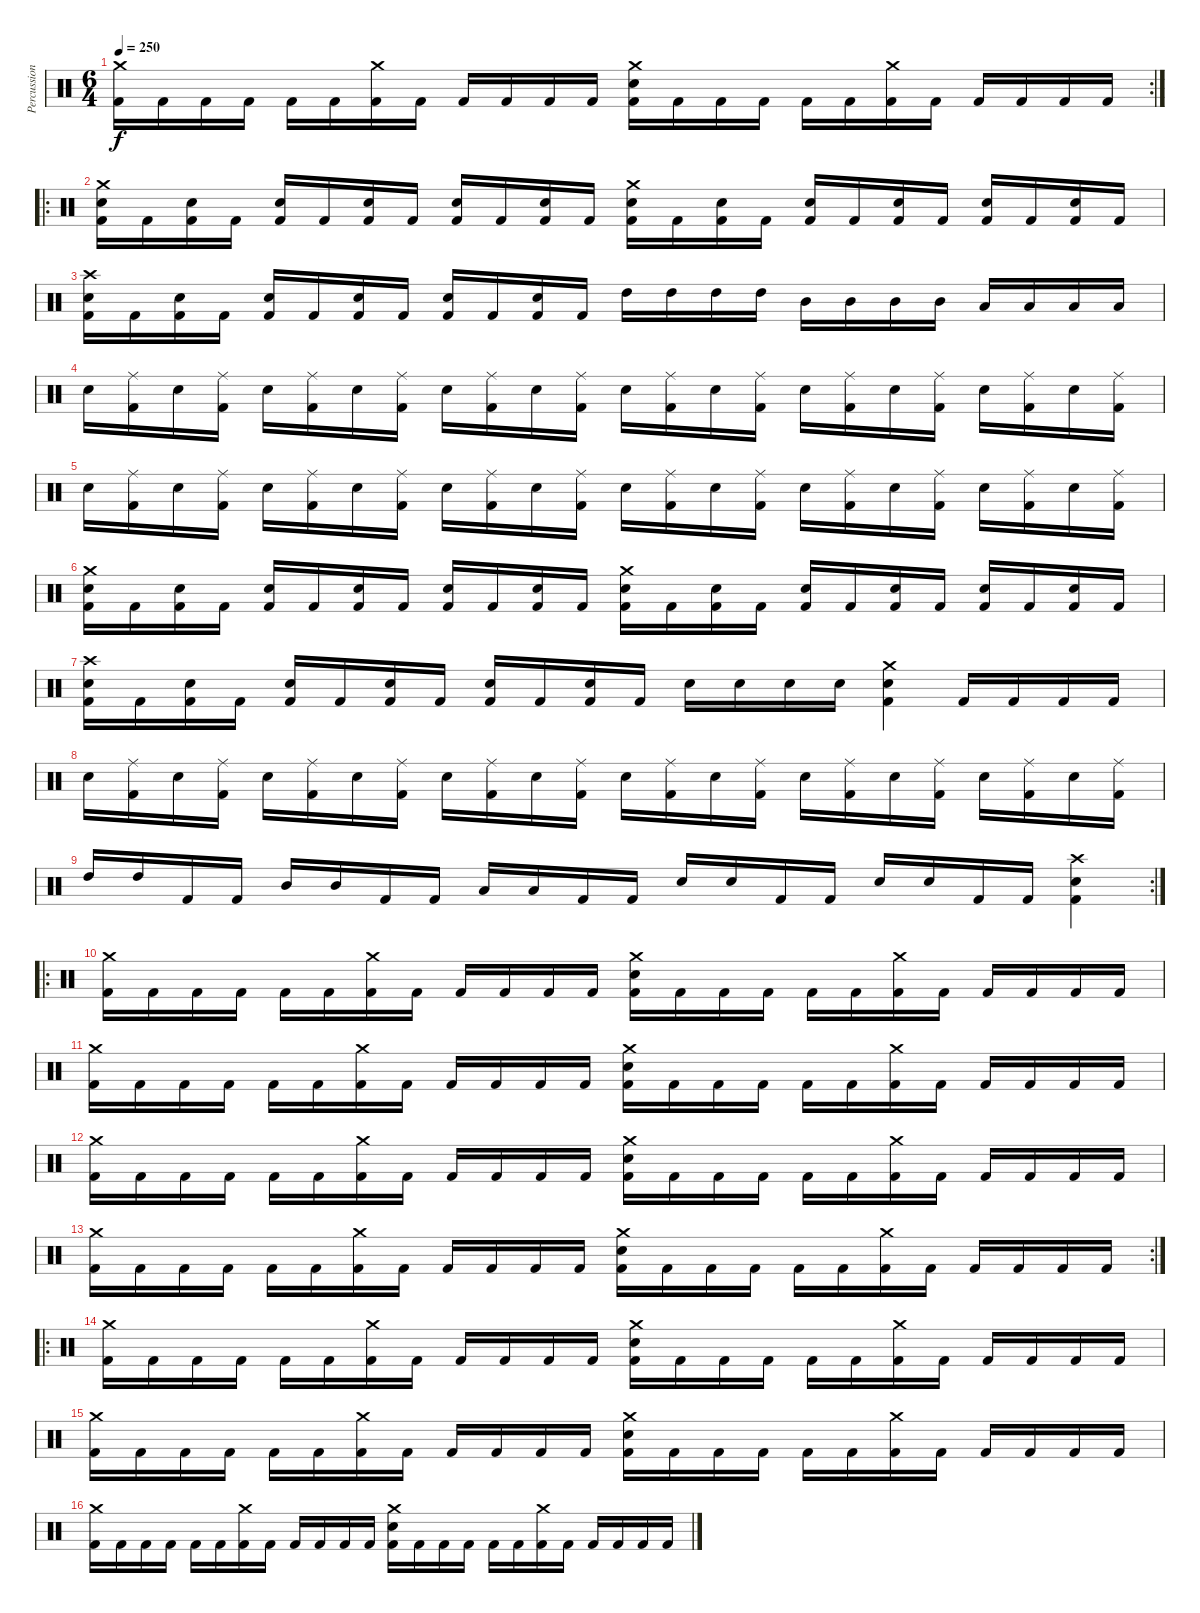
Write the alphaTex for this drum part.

\track ("Percussion" "Percussion") {instrument percussion}
\staff {score}
\articulation defaults
\rc 2
\ts (6 4)
\tempo 250
\clef neutral
\ks c
("Crash medium (hit)" "Kick (hit) 2").16{dy f} "Kick (hit) 2".16 "Kick (hit) 2".16 "Kick (hit) 2".16 "Kick (hit) 2".16 "Kick (hit) 2".16 ("Crash medium (hit)" "Kick (hit) 2").16 "Kick (hit) 2".16 "Kick (hit) 2".16 "Kick (hit) 2".16 "Kick (hit) 2".16 "Kick (hit) 2".16 ("Crash medium (hit)" "Electric Snare (hit)" "Kick (hit) 2").16 "Kick (hit) 2".16 "Kick (hit) 2".16 "Kick (hit) 2".16 "Kick (hit) 2".16 "Kick (hit) 2".16 ("Crash medium (hit)" "Kick (hit) 2").16 "Kick (hit) 2".16 "Kick (hit) 2".16 "Kick (hit) 2".16 "Kick (hit) 2".16 "Kick (hit) 2".16 |
\ro
("Crash medium (hit)" "Electric Snare (hit)" "Kick (hit) 2").16 "Kick (hit) 2".16 ("Electric Snare (hit)" "Kick (hit) 2").16 "Kick (hit) 2".16 ("Electric Snare (hit)" "Kick (hit) 2").16 "Kick (hit) 2".16 ("Electric Snare (hit)" "Kick (hit) 2").16 "Kick (hit) 2".16 ("Electric Snare (hit)" "Kick (hit) 2").16 "Kick (hit) 2".16 ("Electric Snare (hit)" "Kick (hit) 2").16 "Kick (hit) 2".16 ("Crash medium (hit)" "Electric Snare (hit)" "Kick (hit) 2").16 "Kick (hit) 2".16 ("Electric Snare (hit)" "Kick (hit) 2").16 "Kick (hit) 2".16 ("Electric Snare (hit)" "Kick (hit) 2").16 "Kick (hit) 2".16 ("Electric Snare (hit)" "Kick (hit) 2").16 "Kick (hit) 2".16 ("Electric Snare (hit)" "Kick (hit) 2").16 "Kick (hit) 2".16 ("Electric Snare (hit)" "Kick (hit) 2").16 "Kick (hit) 2".16 |
("Crash high (hit)" "Electric Snare (hit)" "Kick (hit) 2").16 "Kick (hit) 2".16 ("Electric Snare (hit)" "Kick (hit) 2").16 "Kick (hit) 2".16 ("Electric Snare (hit)" "Kick (hit) 2").16 "Kick (hit) 2".16 ("Electric Snare (hit)" "Kick (hit) 2").16 "Kick (hit) 2".16 ("Electric Snare (hit)" "Kick (hit) 2").16 "Kick (hit) 2".16 ("Electric Snare (hit)" "Kick (hit) 2").16 "Kick (hit) 2".16 "High Tom (hit)".16 "High Tom (hit)".16 "High Tom (hit)".16 "High Tom (hit)".16 "Mid Tom (hit)".16 "Mid Tom (hit)".16 "Mid Tom (hit)".16 "Mid Tom (hit)".16 "Low Tom (hit)".16 "Low Tom (hit)".16 "Low Tom (hit)".16 "Low Tom (hit)".16 |
"Electric Snare (hit)".16 ("Ride (middle)" "Kick (hit) 2").16 "Electric Snare (hit)".16 ("Ride (middle)" "Kick (hit) 2").16 "Electric Snare (hit)".16 ("Ride (middle)" "Kick (hit) 2").16 "Electric Snare (hit)".16 ("Ride (middle)" "Kick (hit) 2").16 "Electric Snare (hit)".16 ("Ride (middle)" "Kick (hit) 2").16 "Electric Snare (hit)".16 ("Ride (middle)" "Kick (hit) 2").16 "Electric Snare (hit)".16 ("Ride (middle)" "Kick (hit) 2").16 "Electric Snare (hit)".16 ("Ride (middle)" "Kick (hit) 2").16 "Electric Snare (hit)".16 ("Ride (middle)" "Kick (hit) 2").16 "Electric Snare (hit)".16 ("Ride (middle)" "Kick (hit) 2").16 "Electric Snare (hit)".16 ("Ride (middle)" "Kick (hit) 2").16 "Electric Snare (hit)".16 ("Ride (middle)" "Kick (hit) 2").16 |
"Electric Snare (hit)".16 ("Ride (middle)" "Kick (hit) 2").16 "Electric Snare (hit)".16 ("Ride (middle)" "Kick (hit) 2").16 "Electric Snare (hit)".16 ("Ride (middle)" "Kick (hit) 2").16 "Electric Snare (hit)".16 ("Ride (middle)" "Kick (hit) 2").16 "Electric Snare (hit)".16 ("Ride (middle)" "Kick (hit) 2").16 "Electric Snare (hit)".16 ("Ride (middle)" "Kick (hit) 2").16 "Electric Snare (hit)".16 ("Ride (middle)" "Kick (hit) 2").16 "Electric Snare (hit)".16 ("Ride (middle)" "Kick (hit) 2").16 "Electric Snare (hit)".16 ("Ride (middle)" "Kick (hit) 2").16 "Electric Snare (hit)".16 ("Ride (middle)" "Kick (hit) 2").16 "Electric Snare (hit)".16 ("Ride (middle)" "Kick (hit) 2").16 "Electric Snare (hit)".16 ("Ride (middle)" "Kick (hit) 2").16 |
("Crash medium (hit)" "Electric Snare (hit)" "Kick (hit) 2").16 "Kick (hit) 2".16 ("Electric Snare (hit)" "Kick (hit) 2").16 "Kick (hit) 2".16 ("Electric Snare (hit)" "Kick (hit) 2").16 "Kick (hit) 2".16 ("Electric Snare (hit)" "Kick (hit) 2").16 "Kick (hit) 2".16 ("Electric Snare (hit)" "Kick (hit) 2").16 "Kick (hit) 2".16 ("Electric Snare (hit)" "Kick (hit) 2").16 "Kick (hit) 2".16 ("Crash medium (hit)" "Electric Snare (hit)" "Kick (hit) 2").16 "Kick (hit) 2".16 ("Electric Snare (hit)" "Kick (hit) 2").16 "Kick (hit) 2".16 ("Electric Snare (hit)" "Kick (hit) 2").16 "Kick (hit) 2".16 ("Electric Snare (hit)" "Kick (hit) 2").16 "Kick (hit) 2".16 ("Electric Snare (hit)" "Kick (hit) 2").16 "Kick (hit) 2".16 ("Electric Snare (hit)" "Kick (hit) 2").16 "Kick (hit) 2".16 |
("Crash high (hit)" "Electric Snare (hit)" "Kick (hit) 2").16 "Kick (hit) 2".16 ("Electric Snare (hit)" "Kick (hit) 2").16 "Kick (hit) 2".16 ("Electric Snare (hit)" "Kick (hit) 2").16 "Kick (hit) 2".16 ("Electric Snare (hit)" "Kick (hit) 2").16 "Kick (hit) 2".16 ("Electric Snare (hit)" "Kick (hit) 2").16 "Kick (hit) 2".16 ("Electric Snare (hit)" "Kick (hit) 2").16 "Kick (hit) 2".16 "Electric Snare (hit)".16 "Electric Snare (hit)".16 "Electric Snare (hit)".16 "Electric Snare (hit)".16 ("Crash medium (hit)" "Electric Snare (hit)" "Kick (hit) 2").4 "Kick (hit) 2".16 "Kick (hit) 2".16 "Kick (hit) 2".16 "Kick (hit) 2".16 |
"Electric Snare (hit)".16 ("Ride (middle)" "Kick (hit) 2").16 "Electric Snare (hit)".16 ("Ride (middle)" "Kick (hit) 2").16 "Electric Snare (hit)".16 ("Ride (middle)" "Kick (hit) 2").16 "Electric Snare (hit)".16 ("Ride (middle)" "Kick (hit) 2").16 "Electric Snare (hit)".16 ("Ride (middle)" "Kick (hit) 2").16 "Electric Snare (hit)".16 ("Ride (middle)" "Kick (hit) 2").16 "Electric Snare (hit)".16 ("Ride (middle)" "Kick (hit) 2").16 "Electric Snare (hit)".16 ("Ride (middle)" "Kick (hit) 2").16 "Electric Snare (hit)".16 ("Ride (middle)" "Kick (hit) 2").16 "Electric Snare (hit)".16 ("Ride (middle)" "Kick (hit) 2").16 "Electric Snare (hit)".16 ("Ride (middle)" "Kick (hit) 2").16 "Electric Snare (hit)".16 ("Ride (middle)" "Kick (hit) 2").16 |
\rc 2 "High Tom (hit)".16 "High Tom (hit)".16 "Kick (hit) 2".16 "Kick (hit) 2".16 "Mid Tom (hit)".16 "Mid Tom (hit)".16 "Kick (hit) 2".16 "Kick (hit) 2".16 "Low Tom (hit)".16 "Low Tom (hit)".16 "Kick (hit) 2".16 "Kick (hit) 2".16 "Electric Snare (hit)".16 "Electric Snare (hit)".16 "Kick (hit) 2".16 "Kick (hit) 2".16 "Electric Snare (hit)".16 "Electric Snare (hit)".16 "Kick (hit) 2".16 "Kick (hit) 2".16
("Crash high (hit)" "Electric Snare (hit)" "Kick (hit) 2").4 |
\ro
("Crash medium (hit)" "Kick (hit) 2").16 "Kick (hit) 2".16 "Kick (hit) 2".16 "Kick (hit) 2".16 "Kick (hit) 2".16 "Kick (hit) 2".16 ("Crash medium (hit)" "Kick (hit) 2").16 "Kick (hit) 2".16 "Kick (hit) 2".16 "Kick (hit) 2".16 "Kick (hit) 2".16 "Kick (hit) 2".16 ("Crash medium (hit)" "Electric Snare (hit)" "Kick (hit) 2").16 "Kick (hit) 2".16 "Kick (hit) 2".16 "Kick (hit) 2".16 "Kick (hit) 2".16 "Kick (hit) 2".16 ("Crash medium (hit)" "Kick (hit) 2").16 "Kick (hit) 2".16 "Kick (hit) 2".16 "Kick (hit) 2".16 "Kick (hit) 2".16 "Kick (hit) 2".16 |
("Crash medium (hit)" "Kick (hit) 2").16 "Kick (hit) 2".16 "Kick (hit) 2".16 "Kick (hit) 2".16 "Kick (hit) 2".16 "Kick (hit) 2".16 ("Crash medium (hit)" "Kick (hit) 2").16 "Kick (hit) 2".16 "Kick (hit) 2".16 "Kick (hit) 2".16 "Kick (hit) 2".16 "Kick (hit) 2".16 ("Crash medium (hit)" "Electric Snare (hit)" "Kick (hit) 2").16 "Kick (hit) 2".16 "Kick (hit) 2".16 "Kick (hit) 2".16 "Kick (hit) 2".16 "Kick (hit) 2".16 ("Crash medium (hit)" "Kick (hit) 2").16 "Kick (hit) 2".16 "Kick (hit) 2".16 "Kick (hit) 2".16 "Kick (hit) 2".16 "Kick (hit) 2".16 |
("Crash medium (hit)" "Kick (hit) 2").16 "Kick (hit) 2".16 "Kick (hit) 2".16 "Kick (hit) 2".16 "Kick (hit) 2".16 "Kick (hit) 2".16 ("Crash medium (hit)" "Kick (hit) 2").16 "Kick (hit) 2".16 "Kick (hit) 2".16 "Kick (hit) 2".16 "Kick (hit) 2".16 "Kick (hit) 2".16 ("Crash medium (hit)" "Electric Snare (hit)" "Kick (hit) 2").16 "Kick (hit) 2".16 "Kick (hit) 2".16 "Kick (hit) 2".16 "Kick (hit) 2".16 "Kick (hit) 2".16 ("Crash medium (hit)" "Kick (hit) 2").16 "Kick (hit) 2".16 "Kick (hit) 2".16 "Kick (hit) 2".16 "Kick (hit) 2".16 "Kick (hit) 2".16 |
\rc 2
("Crash medium (hit)" "Kick (hit) 2").16 "Kick (hit) 2".16 "Kick (hit) 2".16 "Kick (hit) 2".16 "Kick (hit) 2".16 "Kick (hit) 2".16 ("Crash medium (hit)" "Kick (hit) 2").16 "Kick (hit) 2".16 "Kick (hit) 2".16 "Kick (hit) 2".16 "Kick (hit) 2".16 "Kick (hit) 2".16 ("Crash medium (hit)" "Electric Snare (hit)" "Kick (hit) 2").16 "Kick (hit) 2".16 "Kick (hit) 2".16 "Kick (hit) 2".16 "Kick (hit) 2".16 "Kick (hit) 2".16 ("Crash medium (hit)" "Kick (hit) 2").16 "Kick (hit) 2".16 "Kick (hit) 2".16 "Kick (hit) 2".16 "Kick (hit) 2".16 "Kick (hit) 2".16 |
\ro
("Crash medium (hit)" "Kick (hit) 2").16 "Kick (hit) 2".16 "Kick (hit) 2".16 "Kick (hit) 2".16 "Kick (hit) 2".16 "Kick (hit) 2".16 ("Crash medium (hit)" "Kick (hit) 2").16 "Kick (hit) 2".16 "Kick (hit) 2".16 "Kick (hit) 2".16 "Kick (hit) 2".16 "Kick (hit) 2".16 ("Crash medium (hit)" "Electric Snare (hit)" "Kick (hit) 2").16 "Kick (hit) 2".16 "Kick (hit) 2".16 "Kick (hit) 2".16 "Kick (hit) 2".16 "Kick (hit) 2".16 ("Crash medium (hit)" "Kick (hit) 2").16 "Kick (hit) 2".16 "Kick (hit) 2".16 "Kick (hit) 2".16 "Kick (hit) 2".16 "Kick (hit) 2".16 |
("Crash medium (hit)" "Kick (hit) 2").16 "Kick (hit) 2".16 "Kick (hit) 2".16 "Kick (hit) 2".16 "Kick (hit) 2".16 "Kick (hit) 2".16 ("Crash medium (hit)" "Kick (hit) 2").16 "Kick (hit) 2".16 "Kick (hit) 2".16 "Kick (hit) 2".16 "Kick (hit) 2".16 "Kick (hit) 2".16 ("Crash medium (hit)" "Electric Snare (hit)" "Kick (hit) 2").16 "Kick (hit) 2".16 "Kick (hit) 2".16 "Kick (hit) 2".16 "Kick (hit) 2".16 "Kick (hit) 2".16 ("Crash medium (hit)" "Kick (hit) 2").16 "Kick (hit) 2".16 "Kick (hit) 2".16 "Kick (hit) 2".16 "Kick (hit) 2".16 "Kick (hit) 2".16 |
("Crash medium (hit)" "Kick (hit) 2").16 "Kick (hit) 2".16 "Kick (hit) 2".16 "Kick (hit) 2".16 "Kick (hit) 2".16 "Kick (hit) 2".16 ("Crash medium (hit)" "Kick (hit) 2").16 "Kick (hit) 2".16 "Kick (hit) 2".16 "Kick (hit) 2".16 "Kick (hit) 2".16 "Kick (hit) 2".16 ("Crash medium (hit)" "Electric Snare (hit)" "Kick (hit) 2").16 "Kick (hit) 2".16 "Kick (hit) 2".16 "Kick (hit) 2".16 "Kick (hit) 2".16 "Kick (hit) 2".16 ("Crash medium (hit)" "Kick (hit) 2").16 "Kick (hit) 2".16 "Kick (hit) 2".16 "Kick (hit) 2".16 "Kick (hit) 2".16 "Kick (hit) 2".16
